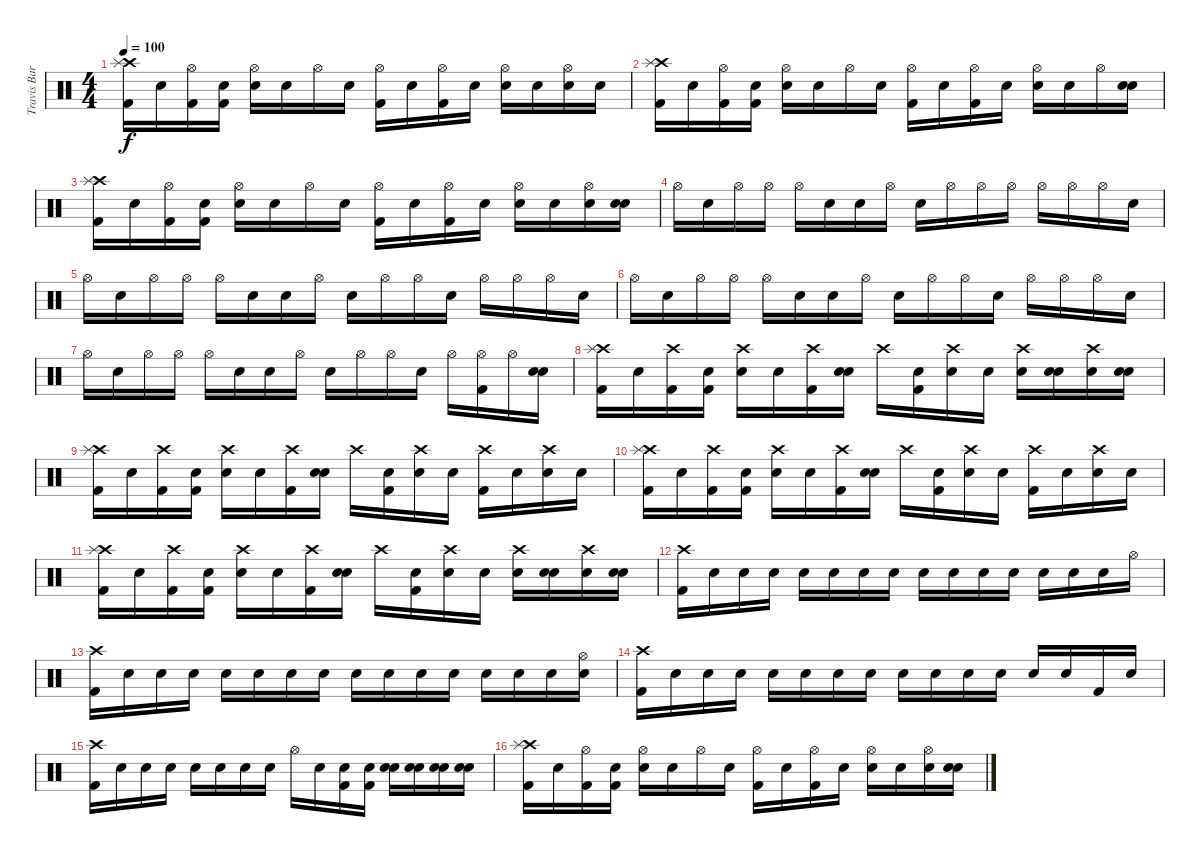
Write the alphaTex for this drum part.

\track ("Travis Barker - Batterie" "Travis Bar") {instrument percussion}
\staff {score}
\articulation defaults
\ts (4 4)
\tempo 100
\clef neutral
\ks c
("Crash high (hit)" "Splash (hit)" "Kick (hit) 2").16{dy f} "Snare (hit)"{x}.16 ("Hi-Hat (open)" "Kick (hit) 2").16 ("Snare (hit)"{x} "Kick (hit) 2").16 ("Hi-Hat (open)" "Electric Snare (hit)").16 "Snare (hit)"{x}.16 "Hi-Hat (open)".16 "Snare (hit)"{x}.16 ("Hi-Hat (open)" "Kick (hit) 2").16 "Snare (hit)"{x}.16 ("Hi-Hat (open)" "Kick (hit) 2").16 "Snare (hit)"{x}.16 ("Hi-Hat (open)" "Electric Snare (hit)").16 "Snare (hit)"{x}.16 ("Hi-Hat (open)" "Electric Snare (hit)").16 "Snare (hit)"{x}.16 |
("Crash high (hit)" "Splash (hit)" "Kick (hit) 2").16 "Snare (hit)"{x}.16 ("Hi-Hat (open)" "Kick (hit) 2").16 ("Snare (hit)"{x} "Kick (hit) 2").16 ("Hi-Hat (open)" "Electric Snare (hit)").16 "Snare (hit)"{x}.16 "Hi-Hat (open)".16 "Snare (hit)"{x}.16 ("Hi-Hat (open)" "Kick (hit) 2").16 "Snare (hit)"{x}.16 ("Hi-Hat (open)" "Kick (hit) 2").16 "Snare (hit)"{x}.16 ("Hi-Hat (open)" "Electric Snare (hit)").16 "Snare (hit)"{x}.16 "Hi-Hat (open)".16 ("Snare (hit)"{x} "Electric Snare (hit)").16 |
("Crash high (hit)" "Splash (hit)" "Kick (hit) 2").16 "Snare (hit)"{x}.16 ("Hi-Hat (open)" "Kick (hit) 2").16 ("Snare (hit)"{x} "Kick (hit) 2").16 ("Hi-Hat (open)" "Electric Snare (hit)").16 "Snare (hit)"{x}.16 "Hi-Hat (open)".16 "Snare (hit)"{x}.16 ("Hi-Hat (open)" "Kick (hit) 2").16 "Snare (hit)"{x}.16 ("Hi-Hat (open)" "Kick (hit) 2").16 "Snare (hit)"{x}.16 ("Hi-Hat (open)" "Electric Snare (hit)").16 "Snare (hit)"{x}.16 ("Hi-Hat (open)" "Electric Snare (hit)").16 ("Snare (hit)"{x} "Electric Snare (hit)").16 |
"Hi-Hat (open)".16 "Snare (hit)"{x}.16 "Hi-Hat (open)".16 "Hi-Hat (open)".16 "Hi-Hat (open)".16 "Snare (hit)"{x}.16 "Snare (hit)"{x}.16 "Hi-Hat (open)".16 "Snare (hit)"{x}.16 "Hi-Hat (open)".16 "Hi-Hat (open)".16 "Hi-Hat (open)"{x}.16 "Hi-Hat (open)".16 "Hi-Hat (open)".16 "Hi-Hat (open)".16 "Snare (hit)"{x}.16 |
"Hi-Hat (open)".16 "Snare (hit)"{x}.16 "Hi-Hat (open)".16 "Hi-Hat (open)".16 "Hi-Hat (open)".16 "Snare (hit)"{x}.16 "Snare (hit)"{x}.16 "Hi-Hat (open)".16 "Snare (hit)"{x}.16 "Hi-Hat (open)".16 "Hi-Hat (open)".16 "Snare (hit)"{x}.16 "Hi-Hat (open)".16 "Hi-Hat (open)".16 "Hi-Hat (open)".16 "Snare (hit)"{x}.16 |
"Hi-Hat (open)".16 "Snare (hit)"{x}.16 "Hi-Hat (open)".16 "Hi-Hat (open)".16 "Hi-Hat (open)".16 "Snare (hit)"{x}.16 "Snare (hit)"{x}.16 "Hi-Hat (open)".16 "Snare (hit)"{x}.16 "Hi-Hat (open)".16 "Hi-Hat (open)".16 "Snare (hit)"{x}.16 "Hi-Hat (open)".16 "Hi-Hat (open)".16 "Hi-Hat (open)".16 "Snare (hit)"{x}.16 |
"Hi-Hat (open)".16 "Snare (hit)"{x}.16 "Hi-Hat (open)".16 "Hi-Hat (open)".16 "Hi-Hat (open)".16 "Snare (hit)"{x}.16 "Snare (hit)"{x}.16 "Hi-Hat (open)".16 "Snare (hit)"{x}.16 "Hi-Hat (open)".16 "Hi-Hat (open)".16 "Snare (hit)"{x}.16 "Hi-Hat (open)".16 ("Hi-Hat (open)" "Kick (hit) 2").16 "Hi-Hat (open)".16 ("Snare (hit)"{x} "Electric Snare (hit)").16 |
("Crash high (hit)" "Splash (hit)" "Kick (hit) 2").16 "Snare (hit)"{x}.16 ("Crash high (hit)" "Kick (hit) 2").16 ("Snare (hit)"{x} "Kick (hit) 2").16 ("Crash high (hit)" "Electric Snare (hit)").16 "Snare (hit)"{x}.16 ("Crash high (hit)" "Kick (hit) 2").16 ("Snare (hit)"{x} "Electric Snare (hit)").16 "Crash high (hit)".16 ("Snare (hit)"{x} "Kick (hit) 2").16 ("Crash high (hit)" "Electric Snare (hit)").16 "Snare (hit)"{x}.16 ("Crash high (hit)" "Electric Snare (hit)").16 ("Snare (hit)"{x} "Electric Snare (hit)").16 ("Crash high (hit)" "Electric Snare (hit)").16 ("Snare (hit)"{x} "Electric Snare (hit)").16 |
("Crash high (hit)" "Splash (hit)" "Kick (hit) 2").16 "Snare (hit)"{x}.16 ("Crash high (hit)" "Kick (hit) 2").16 ("Snare (hit)"{x} "Kick (hit) 2").16 ("Crash high (hit)" "Electric Snare (hit)").16 "Snare (hit)"{x}.16 ("Crash high (hit)" "Kick (hit) 2").16 ("Snare (hit)"{x} "Electric Snare (hit)").16 "Crash high (hit)".16 ("Snare (hit)"{x} "Kick (hit) 2").16 ("Crash high (hit)" "Electric Snare (hit)").16 "Snare (hit)"{x}.16 ("Crash high (hit)" "Kick (hit) 2").16 "Snare (hit)"{x}.16 ("Crash high (hit)" "Electric Snare (hit)").16 "Snare (hit)"{x}.16 |
("Crash high (hit)" "Splash (hit)" "Kick (hit) 2").16 "Snare (hit)"{x}.16 ("Crash high (hit)" "Kick (hit) 2").16 ("Snare (hit)"{x} "Kick (hit) 2").16 ("Crash high (hit)" "Electric Snare (hit)").16 "Snare (hit)"{x}.16 ("Crash high (hit)" "Kick (hit) 2").16 ("Snare (hit)"{x} "Electric Snare (hit)").16 "Crash high (hit)".16 ("Snare (hit)"{x} "Kick (hit) 2").16 ("Crash high (hit)" "Electric Snare (hit)").16 "Snare (hit)"{x}.16 ("Crash high (hit)" "Kick (hit) 2").16 "Snare (hit)"{x}.16 ("Crash high (hit)" "Electric Snare (hit)").16 "Snare (hit)"{x}.16 |
("Crash high (hit)" "Splash (hit)" "Kick (hit) 2").16 "Snare (hit)"{x}.16 ("Crash high (hit)" "Kick (hit) 2").16 ("Snare (hit)"{x} "Kick (hit) 2").16 ("Crash high (hit)" "Electric Snare (hit)").16 "Snare (hit)"{x}.16 ("Crash high (hit)" "Kick (hit) 2").16 ("Snare (hit)"{x} "Electric Snare (hit)").16 "Crash high (hit)".16 ("Snare (hit)"{x} "Kick (hit) 2").16 ("Crash high (hit)" "Electric Snare (hit)").16 "Snare (hit)"{x}.16 ("Crash high (hit)" "Electric Snare (hit)").16 ("Snare (hit)"{x} "Electric Snare (hit)").16 ("Crash high (hit)" "Electric Snare (hit)").16 ("Snare (hit)"{x} "Electric Snare (hit)").16 |
("Crash high (hit)" "Kick (hit) 2").16 "Snare (hit)"{x}.16 "Snare (hit)"{x}.16 "Snare (hit)"{x}.16 "Snare (hit)"{x}.16 "Snare (hit)"{x}.16 "Snare (hit)"{x}.16 "Snare (hit)"{x}.16 "Snare (hit)"{x}.16 "Snare (hit)"{x}.16 "Snare (hit)"{x}.16 "Snare (hit)"{x}.16 "Snare (hit)"{x}.16 "Snare (hit)"{x}.16 "Snare (hit)"{x}.16 "Hi-Hat (open)".16 |
("Crash high (hit)" "Kick (hit) 2").16 "Snare (hit)"{x}.16 "Snare (hit)"{x}.16 "Snare (hit)"{x}.16 "Snare (hit)"{x}.16 "Snare (hit)"{x}.16 "Snare (hit)"{x}.16 "Snare (hit)"{x}.16 "Snare (hit)"{x}.16 "Snare (hit)"{x}.16 "Snare (hit)"{x}.16 "Snare (hit)"{x}.16 "Snare (hit)"{x}.16 "Snare (hit)"{x}.16 "Snare (hit)"{x}.16 ("Hi-Hat (open)" "Snare (hit)"{x}).16 |
("Crash high (hit)" "Kick (hit) 2").16 "Snare (hit)"{x}.16 "Snare (hit)"{x}.16 "Snare (hit)"{x}.16 "Snare (hit)"{x}.16 "Snare (hit)"{x}.16 "Snare (hit)"{x}.16 "Snare (hit)"{x}.16 "Snare (hit)"{x}.16 "Snare (hit)"{x}.16 "Snare (hit)"{x}.16 "Snare (hit)"{x}.16 "Snare (hit)"{x}.16 "Snare (hit)"{x}.16 "Kick (hit) 2".16 "Snare (hit)"{x}.16 |
("Crash high (hit)" "Kick (hit) 2").16 "Snare (hit)"{x}.16 "Snare (hit)"{x}.16 "Snare (hit)"{x}.16 "Snare (hit)"{x}.16 "Snare (hit)"{x}.16 "Snare (hit)"{x}.16 "Snare (hit)"{x}.16 "Hi-Hat (open)".16 "Electric Snare (hit)".16 ("Snare (hit)"{x} "Kick (hit) 2").16 ("Snare (hit)"{x} "Kick (hit) 2").16 ("Snare (hit)"{x} "Electric Snare (hit)").16 ("Snare (hit)"{x} "Electric Snare (hit)").16 ("Snare (hit)"{x} "Electric Snare (hit)").16 ("Snare (hit)"{x} "Electric Snare (hit)").16 |
("Crash high (hit)" "Splash (hit)" "Kick (hit) 2").16 "Snare (hit)"{x}.16 ("Hi-Hat (open)" "Kick (hit) 2").16 ("Snare (hit)"{x} "Kick (hit) 2").16 ("Hi-Hat (open)" "Electric Snare (hit)").16 "Snare (hit)"{x}.16 "Hi-Hat (open)".16 "Snare (hit)"{x}.16 ("Hi-Hat (open)" "Kick (hit) 2").16 "Snare (hit)"{x}.16 ("Hi-Hat (open)" "Kick (hit) 2").16 "Snare (hit)"{x}.16 ("Hi-Hat (open)" "Electric Snare (hit)").16 "Snare (hit)"{x}.16 ("Hi-Hat (open)" "Electric Snare (hit)").16 ("Snare (hit)"{x} "Electric Snare (hit)").16
